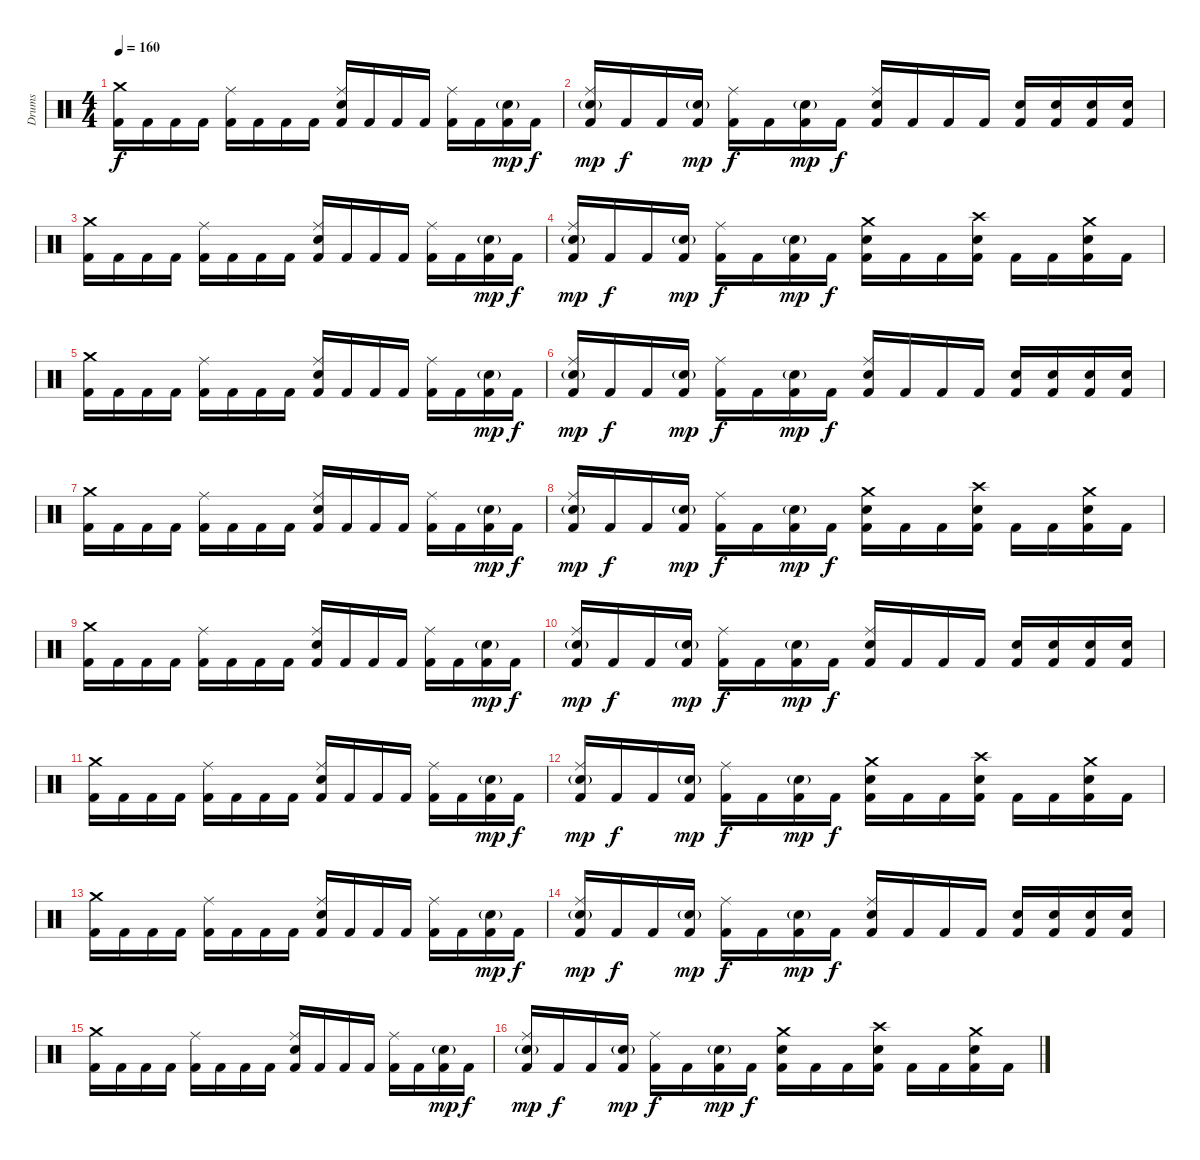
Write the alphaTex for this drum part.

\track ("Drums" "Drums") {instrument percussion}
\staff {score}
\articulation defaults
\ts (4 4)
\section ("" "")
\tempo 160
\clef neutral
\ks c
("Crash medium (hit)" "Kick (hit) 2").16{dy f} "Kick (hit) 2".16 "Kick (hit) 2".16 "Kick (hit) 2".16 ("Ride (middle)" "Kick (hit) 2").16 "Kick (hit) 2".16 "Kick (hit) 2".16 "Kick (hit) 2".16 ("Ride (middle)" "Electric Snare (hit)" "Kick (hit) 2").16 "Kick (hit) 2".16 "Kick (hit) 2".16 "Kick (hit) 2".16 ("Ride (middle)" "Kick (hit) 2").16 "Kick (hit) 2".16 ("Electric Snare (hit)"{g} "Kick (hit) 2").16{dy mp} "Kick (hit) 2".16{dy f} |
("Ride (middle)" "Electric Snare (hit)"{g} "Kick (hit) 2").16{dy mp} "Kick (hit) 2".16{dy f} "Kick (hit) 2".16 ("Electric Snare (hit)"{g} "Kick (hit) 2").16{dy mp} ("Ride (middle)" "Kick (hit) 2").16{dy f} "Kick (hit) 2".16 ("Electric Snare (hit)"{g} "Kick (hit) 2").16{dy mp} "Kick (hit) 2".16{dy f} ("Ride (middle)" "Electric Snare (hit)" "Kick (hit) 2").16 "Kick (hit) 2".16 "Kick (hit) 2".16 "Kick (hit) 2".16 ("Electric Snare (hit)" "Kick (hit) 2").16 ("Electric Snare (hit)" "Kick (hit) 2").16 ("Electric Snare (hit)" "Kick (hit) 2").16 ("Electric Snare (hit)" "Kick (hit) 2").16 |
("Crash medium (hit)" "Kick (hit) 2").16 "Kick (hit) 2".16 "Kick (hit) 2".16 "Kick (hit) 2".16 ("Ride (middle)" "Kick (hit) 2").16 "Kick (hit) 2".16 "Kick (hit) 2".16 "Kick (hit) 2".16 ("Ride (middle)" "Electric Snare (hit)" "Kick (hit) 2").16 "Kick (hit) 2".16 "Kick (hit) 2".16 "Kick (hit) 2".16 ("Ride (middle)" "Kick (hit) 2").16 "Kick (hit) 2".16 ("Electric Snare (hit)"{g} "Kick (hit) 2").16{dy mp} "Kick (hit) 2".16{dy f} |
("Ride (middle)" "Electric Snare (hit)"{g} "Kick (hit) 2").16{dy mp} "Kick (hit) 2".16{dy f} "Kick (hit) 2".16 ("Electric Snare (hit)"{g} "Kick (hit) 2").16{dy mp} ("Ride (middle)" "Kick (hit) 2").16{dy f} "Kick (hit) 2".16 ("Electric Snare (hit)"{g} "Kick (hit) 2").16{dy mp} "Kick (hit) 2".16{dy f} ("Crash medium (hit)" "Electric Snare (hit)" "Kick (hit) 2").16 "Kick (hit) 2".16 "Kick (hit) 2".16 ("Crash high (hit)" "Electric Snare (hit)" "Kick (hit) 2").16 "Kick (hit) 2".16 "Kick (hit) 2".16 ("Crash medium (hit)" "Electric Snare (hit)" "Kick (hit) 2").16 "Kick (hit) 2".16 |
("Crash medium (hit)" "Kick (hit) 2").16 "Kick (hit) 2".16 "Kick (hit) 2".16 "Kick (hit) 2".16 ("Ride (middle)" "Kick (hit) 2").16 "Kick (hit) 2".16 "Kick (hit) 2".16 "Kick (hit) 2".16 ("Ride (middle)" "Electric Snare (hit)" "Kick (hit) 2").16 "Kick (hit) 2".16 "Kick (hit) 2".16 "Kick (hit) 2".16 ("Ride (middle)" "Kick (hit) 2").16 "Kick (hit) 2".16 ("Electric Snare (hit)"{g} "Kick (hit) 2").16{dy mp} "Kick (hit) 2".16{dy f} |
("Ride (middle)" "Electric Snare (hit)"{g} "Kick (hit) 2").16{dy mp} "Kick (hit) 2".16{dy f} "Kick (hit) 2".16 ("Electric Snare (hit)"{g} "Kick (hit) 2").16{dy mp} ("Ride (middle)" "Kick (hit) 2").16{dy f} "Kick (hit) 2".16 ("Electric Snare (hit)"{g} "Kick (hit) 2").16{dy mp} "Kick (hit) 2".16{dy f} ("Ride (middle)" "Electric Snare (hit)" "Kick (hit) 2").16 "Kick (hit) 2".16 "Kick (hit) 2".16 "Kick (hit) 2".16 ("Electric Snare (hit)" "Kick (hit) 2").16 ("Electric Snare (hit)" "Kick (hit) 2").16 ("Electric Snare (hit)" "Kick (hit) 2").16 ("Electric Snare (hit)" "Kick (hit) 2").16 |
("Crash medium (hit)" "Kick (hit) 2").16 "Kick (hit) 2".16 "Kick (hit) 2".16 "Kick (hit) 2".16 ("Ride (middle)" "Kick (hit) 2").16 "Kick (hit) 2".16 "Kick (hit) 2".16 "Kick (hit) 2".16 ("Ride (middle)" "Electric Snare (hit)" "Kick (hit) 2").16 "Kick (hit) 2".16 "Kick (hit) 2".16 "Kick (hit) 2".16 ("Ride (middle)" "Kick (hit) 2").16 "Kick (hit) 2".16 ("Electric Snare (hit)"{g} "Kick (hit) 2").16{dy mp} "Kick (hit) 2".16{dy f} |
("Ride (middle)" "Electric Snare (hit)"{g} "Kick (hit) 2").16{dy mp} "Kick (hit) 2".16{dy f} "Kick (hit) 2".16 ("Electric Snare (hit)"{g} "Kick (hit) 2").16{dy mp} ("Ride (middle)" "Kick (hit) 2").16{dy f} "Kick (hit) 2".16 ("Electric Snare (hit)"{g} "Kick (hit) 2").16{dy mp} "Kick (hit) 2".16{dy f} ("Crash medium (hit)" "Electric Snare (hit)" "Kick (hit) 2").16 "Kick (hit) 2".16 "Kick (hit) 2".16 ("Crash high (hit)" "Electric Snare (hit)" "Kick (hit) 2").16 "Kick (hit) 2".16 "Kick (hit) 2".16 ("Crash medium (hit)" "Electric Snare (hit)" "Kick (hit) 2").16 "Kick (hit) 2".16 |
("Crash medium (hit)" "Kick (hit) 2").16 "Kick (hit) 2".16 "Kick (hit) 2".16 "Kick (hit) 2".16 ("Ride (middle)" "Kick (hit) 2").16 "Kick (hit) 2".16 "Kick (hit) 2".16 "Kick (hit) 2".16 ("Ride (middle)" "Electric Snare (hit)" "Kick (hit) 2").16 "Kick (hit) 2".16 "Kick (hit) 2".16 "Kick (hit) 2".16 ("Ride (middle)" "Kick (hit) 2").16 "Kick (hit) 2".16 ("Electric Snare (hit)"{g} "Kick (hit) 2").16{dy mp} "Kick (hit) 2".16{dy f} |
("Ride (middle)" "Electric Snare (hit)"{g} "Kick (hit) 2").16{dy mp} "Kick (hit) 2".16{dy f} "Kick (hit) 2".16 ("Electric Snare (hit)"{g} "Kick (hit) 2").16{dy mp} ("Ride (middle)" "Kick (hit) 2").16{dy f} "Kick (hit) 2".16 ("Electric Snare (hit)"{g} "Kick (hit) 2").16{dy mp} "Kick (hit) 2".16{dy f} ("Ride (middle)" "Electric Snare (hit)" "Kick (hit) 2").16 "Kick (hit) 2".16 "Kick (hit) 2".16 "Kick (hit) 2".16 ("Electric Snare (hit)" "Kick (hit) 2").16 ("Electric Snare (hit)" "Kick (hit) 2").16 ("Electric Snare (hit)" "Kick (hit) 2").16 ("Electric Snare (hit)" "Kick (hit) 2").16 |
("Crash medium (hit)" "Kick (hit) 2").16 "Kick (hit) 2".16 "Kick (hit) 2".16 "Kick (hit) 2".16 ("Ride (middle)" "Kick (hit) 2").16 "Kick (hit) 2".16 "Kick (hit) 2".16 "Kick (hit) 2".16 ("Ride (middle)" "Electric Snare (hit)" "Kick (hit) 2").16 "Kick (hit) 2".16 "Kick (hit) 2".16 "Kick (hit) 2".16 ("Ride (middle)" "Kick (hit) 2").16 "Kick (hit) 2".16 ("Electric Snare (hit)"{g} "Kick (hit) 2").16{dy mp} "Kick (hit) 2".16{dy f} |
("Ride (middle)" "Electric Snare (hit)"{g} "Kick (hit) 2").16{dy mp} "Kick (hit) 2".16{dy f} "Kick (hit) 2".16 ("Electric Snare (hit)"{g} "Kick (hit) 2").16{dy mp} ("Ride (middle)" "Kick (hit) 2").16{dy f} "Kick (hit) 2".16 ("Electric Snare (hit)"{g} "Kick (hit) 2").16{dy mp} "Kick (hit) 2".16{dy f} ("Crash medium (hit)" "Electric Snare (hit)" "Kick (hit) 2").16 "Kick (hit) 2".16 "Kick (hit) 2".16 ("Crash high (hit)" "Electric Snare (hit)" "Kick (hit) 2").16 "Kick (hit) 2".16 "Kick (hit) 2".16 ("Crash medium (hit)" "Electric Snare (hit)" "Kick (hit) 2").16 "Kick (hit) 2".16 |
("Crash medium (hit)" "Kick (hit) 2").16 "Kick (hit) 2".16 "Kick (hit) 2".16 "Kick (hit) 2".16 ("Ride (middle)" "Kick (hit) 2").16 "Kick (hit) 2".16 "Kick (hit) 2".16 "Kick (hit) 2".16 ("Ride (middle)" "Electric Snare (hit)" "Kick (hit) 2").16 "Kick (hit) 2".16 "Kick (hit) 2".16 "Kick (hit) 2".16 ("Ride (middle)" "Kick (hit) 2").16 "Kick (hit) 2".16 ("Electric Snare (hit)"{g} "Kick (hit) 2").16{dy mp} "Kick (hit) 2".16{dy f} |
("Ride (middle)" "Electric Snare (hit)"{g} "Kick (hit) 2").16{dy mp} "Kick (hit) 2".16{dy f} "Kick (hit) 2".16 ("Electric Snare (hit)"{g} "Kick (hit) 2").16{dy mp} ("Ride (middle)" "Kick (hit) 2").16{dy f} "Kick (hit) 2".16 ("Electric Snare (hit)"{g} "Kick (hit) 2").16{dy mp} "Kick (hit) 2".16{dy f} ("Ride (middle)" "Electric Snare (hit)" "Kick (hit) 2").16 "Kick (hit) 2".16 "Kick (hit) 2".16 "Kick (hit) 2".16 ("Electric Snare (hit)" "Kick (hit) 2").16 ("Electric Snare (hit)" "Kick (hit) 2").16 ("Electric Snare (hit)" "Kick (hit) 2").16 ("Electric Snare (hit)" "Kick (hit) 2").16 |
("Crash medium (hit)" "Kick (hit) 2").16 "Kick (hit) 2".16 "Kick (hit) 2".16 "Kick (hit) 2".16 ("Ride (middle)" "Kick (hit) 2").16 "Kick (hit) 2".16 "Kick (hit) 2".16 "Kick (hit) 2".16 ("Ride (middle)" "Electric Snare (hit)" "Kick (hit) 2").16 "Kick (hit) 2".16 "Kick (hit) 2".16 "Kick (hit) 2".16 ("Ride (middle)" "Kick (hit) 2").16 "Kick (hit) 2".16 ("Electric Snare (hit)"{g} "Kick (hit) 2").16{dy mp} "Kick (hit) 2".16{dy f} |
("Ride (middle)" "Electric Snare (hit)"{g} "Kick (hit) 2").16{dy mp} "Kick (hit) 2".16{dy f} "Kick (hit) 2".16 ("Electric Snare (hit)"{g} "Kick (hit) 2").16{dy mp} ("Ride (middle)" "Kick (hit) 2").16{dy f} "Kick (hit) 2".16 ("Electric Snare (hit)"{g} "Kick (hit) 2").16{dy mp} "Kick (hit) 2".16{dy f} ("Crash medium (hit)" "Electric Snare (hit)" "Kick (hit) 2").16 "Kick (hit) 2".16 "Kick (hit) 2".16 ("Crash high (hit)" "Electric Snare (hit)" "Kick (hit) 2").16 "Kick (hit) 2".16 "Kick (hit) 2".16 ("Crash medium (hit)" "Electric Snare (hit)" "Kick (hit) 2").16 "Kick (hit) 2".16
